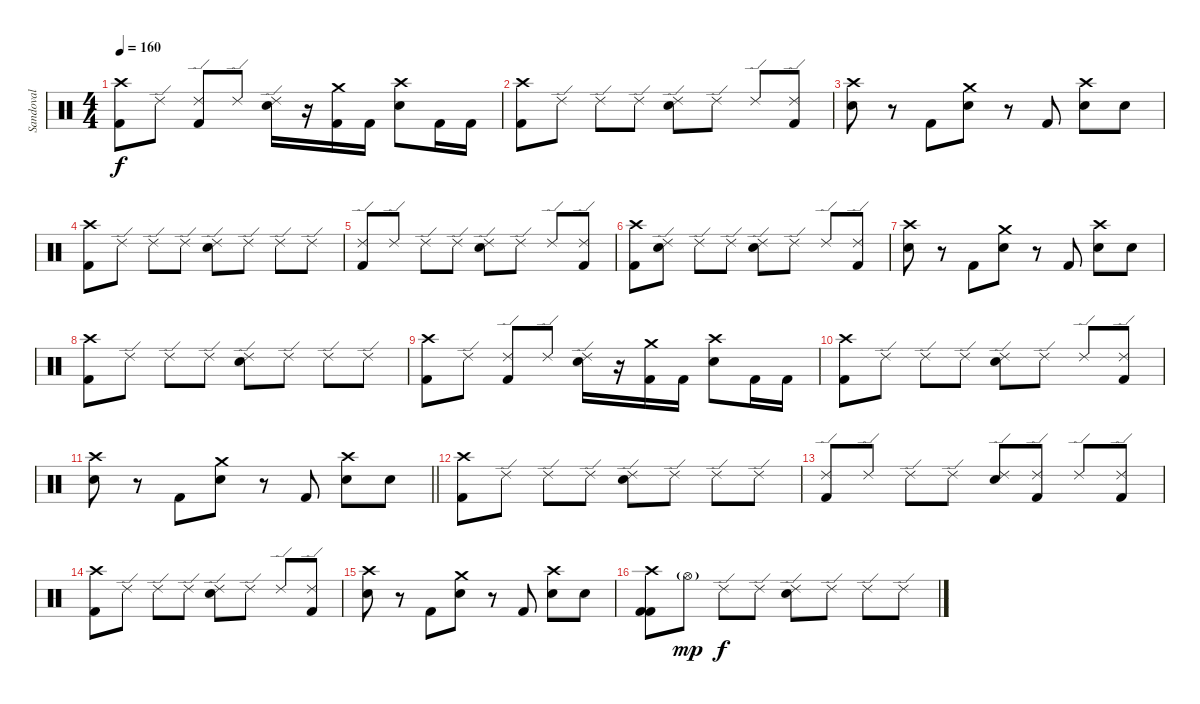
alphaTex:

\track ("Sandoval" "Sandoval") {instrument percussion}
\staff {score}
\articulation defaults
\ts (4 4)
\tempo 160
\clef neutral
\ks c
("Crash high (hit)" "Kick (hit) 2").8{dy f} "Ride (edge) 2".8 ("Ride (edge) 2" "Kick (hit) 2").8 "Ride (edge) 2".8 ("Ride (edge) 2" "Electric Snare (hit)").16 r.16 ("Crash medium (hit)" "Kick (hit) 2").16 "Kick (hit) 2".16 ("Crash high (hit)" "Electric Snare (hit)").8 "Kick (hit) 2".16 "Kick (hit) 2".16 |
("Crash high (hit)" "Kick (hit) 2").8 "Ride (edge) 2".8 "Ride (edge) 2".8 "Ride (edge) 2".8 ("Ride (edge) 2" "Electric Snare (hit)").8 "Ride (edge) 2".8 "Ride (edge) 2".8 ("Ride (edge) 2" "Kick (hit) 2").8 |
("Crash high (hit)" "Electric Snare (hit)").8 r.8 "Kick (hit) 2".8 ("Crash medium (hit)" "Electric Snare (hit)").8 r.8 "Kick (hit) 2".8 ("Crash high (hit)" "Electric Snare (hit)").8 "Electric Snare (hit)".8 |
("Crash high (hit)" "Kick (hit) 2").8 "Ride (edge) 2".8 "Ride (edge) 2".8 "Ride (edge) 2".8 ("Ride (edge) 2" "Electric Snare (hit)").8 "Ride (edge) 2".8 "Ride (edge) 2".8 "Ride (edge) 2".8 |
("Ride (edge) 2" "Kick (hit) 2").8 "Ride (edge) 2".8 "Ride (edge) 2".8 "Ride (edge) 2".8 ("Ride (edge) 2" "Electric Snare (hit)").8 "Ride (edge) 2".8 "Ride (edge) 2".8 ("Ride (edge) 2" "Kick (hit) 2").8 |
("Crash high (hit)" "Kick (hit) 2").8 ("Ride (edge) 2" "Electric Snare (hit)").8 "Ride (edge) 2".8 "Ride (edge) 2".8 ("Ride (edge) 2" "Electric Snare (hit)").8 "Ride (edge) 2".8 "Ride (edge) 2".8 ("Ride (edge) 2" "Kick (hit) 2").8 |
("Crash high (hit)" "Electric Snare (hit)").8 r.8 "Kick (hit) 2".8 ("Crash medium (hit)" "Electric Snare (hit)").8 r.8 "Kick (hit) 2".8 ("Crash high (hit)" "Electric Snare (hit)").8 "Electric Snare (hit)".8 |
("Crash high (hit)" "Kick (hit) 2").8 "Ride (edge) 2".8 "Ride (edge) 2".8 "Ride (edge) 2".8 ("Ride (edge) 2" "Electric Snare (hit)").8 "Ride (edge) 2".8 "Ride (edge) 2".8 "Ride (edge) 2".8 |
("Crash high (hit)" "Kick (hit) 2").8 "Ride (edge) 2".8 ("Ride (edge) 2" "Kick (hit) 2").8 "Ride (edge) 2".8 ("Ride (edge) 2" "Electric Snare (hit)").16 r.16 ("Crash medium (hit)" "Kick (hit) 2").16 "Kick (hit) 2".16 ("Crash high (hit)" "Electric Snare (hit)").8 "Kick (hit) 2".16 "Kick (hit) 2".16 |
("Crash high (hit)" "Kick (hit) 2").8 "Ride (edge) 2".8 "Ride (edge) 2".8 "Ride (edge) 2".8 ("Ride (edge) 2" "Electric Snare (hit)").8 "Ride (edge) 2".8 "Ride (edge) 2".8 ("Ride (edge) 2" "Kick (hit) 2").8 |
\barLineRight lightlight
("Crash high (hit)" "Electric Snare (hit)").8 r.8 "Kick (hit) 2".8 ("Crash medium (hit)" "Electric Snare (hit)").8 r.8 "Kick (hit) 2".8 ("Crash high (hit)" "Electric Snare (hit)").8 "Electric Snare (hit)".8 |
("Crash high (hit)" "Kick (hit) 2").8 "Ride (edge) 2".8 "Ride (edge) 2".8 "Ride (edge) 2".8 ("Ride (edge) 2" "Electric Snare (hit)").8 "Ride (edge) 2".8 "Ride (edge) 2".8 "Ride (edge) 2".8 |
("Ride (edge) 2" "Kick (hit) 2").8 "Ride (edge) 2".8 "Ride (edge) 2".8 "Ride (edge) 2".8 ("Ride (edge) 2" "Electric Snare (hit)").8 ("Ride (edge) 2" "Kick (hit) 2").8 "Ride (edge) 2".8 ("Ride (edge) 2" "Kick (hit) 2").8 |
("Crash high (hit)" "Kick (hit) 2").8 "Ride (edge) 2".8 "Ride (edge) 2".8 "Ride (edge) 2".8 ("Ride (edge) 2" "Electric Snare (hit)").8 "Ride (edge) 2".8 "Ride (edge) 2".8 ("Ride (edge) 2" "Kick (hit) 2").8 |
("Crash high (hit)" "Electric Snare (hit)").8 r.8 "Kick (hit) 2".8 ("Crash medium (hit)" "Electric Snare (hit)").8 r.8 "Kick (hit) 2".8 ("Crash high (hit)" "Electric Snare (hit)").8 "Electric Snare (hit)".8 |
("Crash high (hit)" "Kick (hit) 2" "Kick (hit) 2").8 "Hi-Hat (open)"{g}.8{dy mp} "Ride (edge) 2".8{dy f} "Ride (edge) 2".8 ("Ride (edge) 2" "Electric Snare (hit)").8 "Ride (edge) 2".8 "Ride (edge) 2".8 "Ride (edge) 2".8
